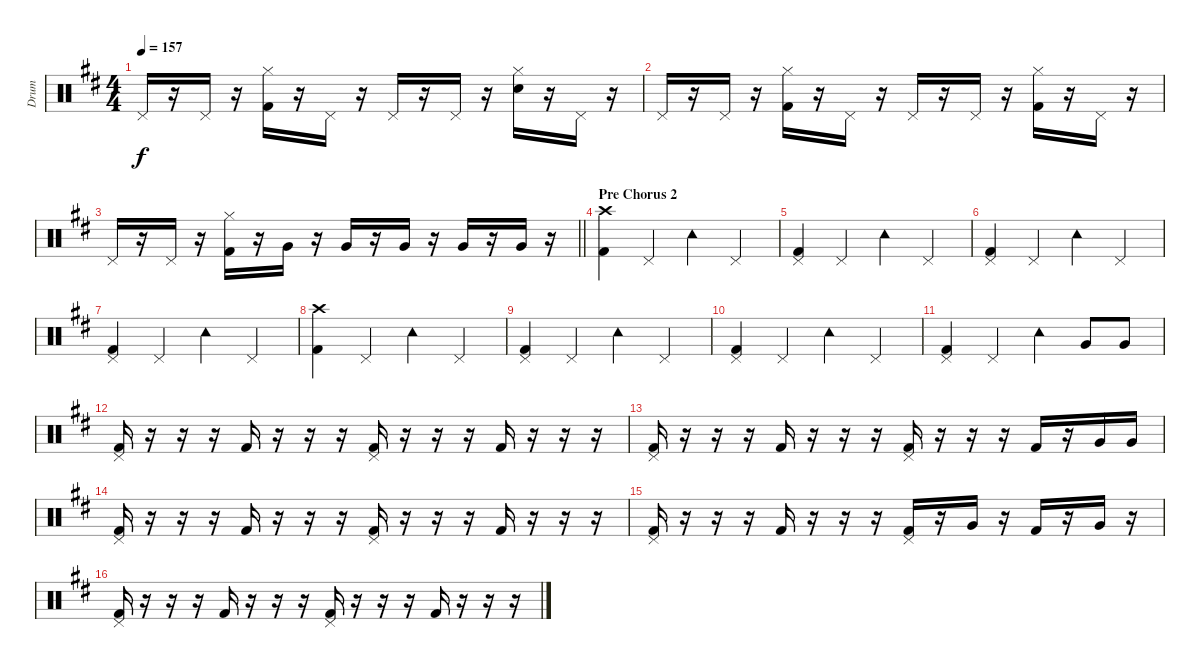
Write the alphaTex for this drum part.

\track ("Drum" "Drum") {instrument percussion}
\staff {score}
\articulation defaults
\ts (4 4)
\tempo 157
\clef neutral
\ks d "Pedal Hi-Hat (hit)".16{dy f}
r.16 "Pedal Hi-Hat (hit)".16 r.16 ("Hi-Hat (closed)" "Kick (hit) 2").16 r.16 "Pedal Hi-Hat (hit)".16 r.16 "Pedal Hi-Hat (hit)".16 r.16 "Pedal Hi-Hat (hit)".16 r.16 ("Hi-Hat (closed)" "Electric Snare (hit)").16 r.16 "Pedal Hi-Hat (hit)".16 r.16 |
"Pedal Hi-Hat (hit)".16 r.16 "Pedal Hi-Hat (hit)".16 r.16 ("Hi-Hat (closed)" "Kick (hit) 2").16 r.16 "Pedal Hi-Hat (hit)".16 r.16 "Pedal Hi-Hat (hit)".16 r.16 "Pedal Hi-Hat (hit)".16 r.16 ("Hi-Hat (closed)" "Kick (hit) 2").16 r.16 "Pedal Hi-Hat (hit)".16 r.16 |
\barLineRight lightlight "Pedal Hi-Hat (hit)".16
r.16 "Pedal Hi-Hat (hit)".16 r.16 ("Hi-Hat (closed)" "Kick (hit) 2").16 r.16 "Very Low Tom (hit)".16 r.16 "Very Low Tom (hit)".16 r.16 "Very Low Tom (hit)".16 r.16 "Very Low Tom (hit)".16 r.16 "Very Low Tom (hit)".16 r.16 |
\section ("" "Pre Chorus 2")
("Kick (hit) 2" "Crash high (hit)").4 "Pedal Hi-Hat (hit)".4 "Tambourine (hit)".4 "Pedal Hi-Hat (hit)".4 |
("Kick (hit) 2" "Pedal Hi-Hat (hit)").4 "Pedal Hi-Hat (hit)".4 "Tambourine (hit)".4 "Pedal Hi-Hat (hit)".4 |
("Kick (hit) 2" "Pedal Hi-Hat (hit)").4 "Pedal Hi-Hat (hit)".4 "Tambourine (hit)".4 "Pedal Hi-Hat (hit)".4 |
("Kick (hit) 2" "Pedal Hi-Hat (hit)").4 "Pedal Hi-Hat (hit)".4 "Tambourine (hit)".4 "Pedal Hi-Hat (hit)".4 |
("Kick (hit) 2" "Crash high (hit)").4 "Pedal Hi-Hat (hit)".4 "Tambourine (hit)".4 "Pedal Hi-Hat (hit)".4 |
("Kick (hit) 2" "Pedal Hi-Hat (hit)").4 "Pedal Hi-Hat (hit)".4 "Tambourine (hit)".4 "Pedal Hi-Hat (hit)".4 |
("Kick (hit) 2" "Pedal Hi-Hat (hit)").4 "Pedal Hi-Hat (hit)".4 "Tambourine (hit)".4 "Pedal Hi-Hat (hit)".4 |
("Kick (hit) 2" "Pedal Hi-Hat (hit)").4 "Pedal Hi-Hat (hit)".4 "Tambourine (hit)".4 "Very Low Tom (hit)".8 "Very Low Tom (hit)".8 |
("Kick (hit) 2" "Pedal Hi-Hat (hit)").16 r.16 r.16 r.16 "Kick (hit) 2".16 r.16 r.16 r.16 ("Kick (hit) 2" "Pedal Hi-Hat (hit)").16 r.16 r.16 r.16 "Kick (hit) 2".16 r.16 r.16 r.16 |
("Kick (hit) 2" "Pedal Hi-Hat (hit)").16 r.16 r.16 r.16 "Kick (hit) 2".16 r.16 r.16 r.16 ("Kick (hit) 2" "Pedal Hi-Hat (hit)").16 r.16 r.16 r.16 "Kick (hit) 2".16 r.16 "Very Low Tom (hit)".16 "Very Low Tom (hit)".16 |
("Kick (hit) 2" "Pedal Hi-Hat (hit)").16 r.16 r.16 r.16 "Kick (hit) 2".16 r.16 r.16 r.16 ("Kick (hit) 2" "Pedal Hi-Hat (hit)").16 r.16 r.16 r.16 "Kick (hit) 2".16 r.16 r.16 r.16 |
("Kick (hit) 2" "Pedal Hi-Hat (hit)").16 r.16 r.16 r.16 "Kick (hit) 2".16 r.16 r.16 r.16 ("Kick (hit) 2" "Pedal Hi-Hat (hit)").16 r.16 "Very Low Tom (hit)".16 r.16 "Kick (hit) 2".16 r.16 "Very Low Tom (hit)".16 r.16 |
("Kick (hit) 2" "Pedal Hi-Hat (hit)").16 r.16 r.16 r.16 "Kick (hit) 2".16 r.16 r.16 r.16 ("Kick (hit) 2" "Pedal Hi-Hat (hit)").16 r.16 r.16 r.16 "Kick (hit) 2".16 r.16 r.16 r.16
